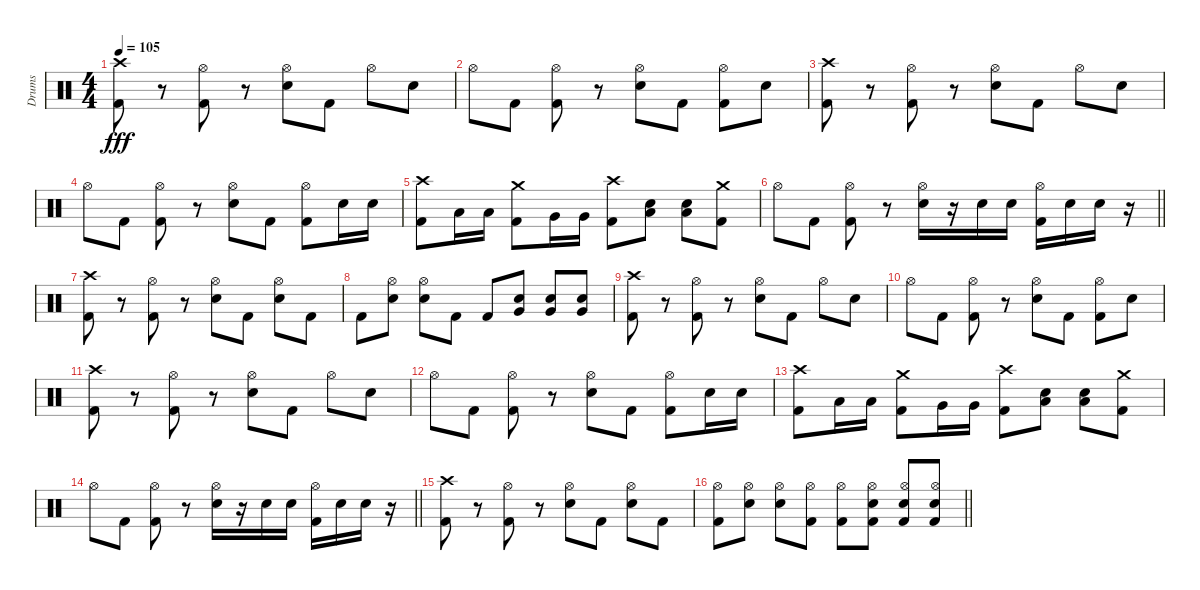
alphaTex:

\track ("Drums" "Drums") {instrument percussion}
\staff {score}
\articulation defaults
\ts (4 4)
\tempo 105
\clef neutral
\ks c
("Crash high (hit)" "Kick (hit) 2").8{dy fff} r.8 ("Hi-Hat (open)" "Kick (hit) 2").8 r.8 ("Hi-Hat (open)" "Electric Snare (hit)").8 "Kick (hit) 2".8 "Hi-Hat (open)".8 "Electric Snare (hit)".8 |
"Hi-Hat (open)".8 "Kick (hit) 2".8 ("Hi-Hat (open)" "Kick (hit) 2").8 r.8 ("Hi-Hat (open)" "Electric Snare (hit)").8 "Kick (hit) 2".8 ("Hi-Hat (open)" "Kick (hit) 2").8 "Electric Snare (hit)".8 |
("Crash high (hit)" "Kick (hit) 2").8 r.8 ("Hi-Hat (open)" "Kick (hit) 2").8 r.8 ("Hi-Hat (open)" "Electric Snare (hit)").8 "Kick (hit) 2".8 "Hi-Hat (open)".8 "Electric Snare (hit)".8 |
"Hi-Hat (open)".8 "Kick (hit) 2".8 ("Hi-Hat (open)" "Kick (hit) 2").8 r.8 ("Hi-Hat (open)" "Electric Snare (hit)").8 "Kick (hit) 2".8 ("Hi-Hat (open)" "Kick (hit) 2").8 "Electric Snare (hit)".16 "Electric Snare (hit)".16 |
("Crash high (hit)" "Kick (hit) 2").8 "Low Tom (hit)".16 "Low Tom (hit)".16 ("Crash medium (hit)" "Kick (hit) 2").8 "Very Low Tom (hit)".16 "Very Low Tom (hit)".16 ("Crash high (hit)" "Kick (hit) 2").8 ("Electric Snare (hit)" "Low Floor Tom (hit)").8 ("Electric Snare (hit)" "Low Floor Tom (hit)").8 ("Crash medium (hit)" "Kick (hit) 2").8 |
\barLineRight lightlight "Hi-Hat (open)".8 "Kick (hit) 2".8
("Hi-Hat (open)" "Kick (hit) 2").8 r.8 ("Hi-Hat (open)" "Electric Snare (hit)").16 r.16 "Electric Snare (hit)".16 "Electric Snare (hit)".16 ("Hi-Hat (open)" "Kick (hit) 2").16 "Electric Snare (hit)".16 "Electric Snare (hit)".16 r.16 |
("Crash high (hit)" "Kick (hit) 2").8 r.8 ("Hi-Hat (open)" "Kick (hit) 2").8 r.8 ("Hi-Hat (open)" "Electric Snare (hit)").8 "Kick (hit) 2".8 ("Hi-Hat (open)" "Electric Snare (hit)").8 "Kick (hit) 2".8 |
"Kick (hit) 2".8 ("Hi-Hat (open)" "Electric Snare (hit)").8 ("Hi-Hat (open)" "Electric Snare (hit)").8 "Kick (hit) 2".8 "Kick (hit) 2".8 ("Very Low Tom (hit)" "Electric Snare (hit)").8 ("Very Low Tom (hit)" "Electric Snare (hit)").8 ("Very Low Tom (hit)" "Electric Snare (hit)").8 |
("Crash high (hit)" "Kick (hit) 2").8 r.8 ("Hi-Hat (open)" "Kick (hit) 2").8 r.8 ("Hi-Hat (open)" "Electric Snare (hit)").8 "Kick (hit) 2".8 "Hi-Hat (open)".8 "Electric Snare (hit)".8 |
"Hi-Hat (open)".8 "Kick (hit) 2".8 ("Hi-Hat (open)" "Kick (hit) 2").8 r.8 ("Hi-Hat (open)" "Electric Snare (hit)").8 "Kick (hit) 2".8 ("Hi-Hat (open)" "Kick (hit) 2").8 "Electric Snare (hit)".8 |
("Crash high (hit)" "Kick (hit) 2").8 r.8 ("Hi-Hat (open)" "Kick (hit) 2").8 r.8 ("Hi-Hat (open)" "Electric Snare (hit)").8 "Kick (hit) 2".8 "Hi-Hat (open)".8 "Electric Snare (hit)".8 |
"Hi-Hat (open)".8 "Kick (hit) 2".8 ("Hi-Hat (open)" "Kick (hit) 2").8 r.8 ("Hi-Hat (open)" "Electric Snare (hit)").8 "Kick (hit) 2".8 ("Hi-Hat (open)" "Kick (hit) 2").8 "Electric Snare (hit)".16 "Electric Snare (hit)".16 |
("Crash high (hit)" "Kick (hit) 2").8 "Low Tom (hit)".16 "Low Tom (hit)".16 ("Crash medium (hit)" "Kick (hit) 2").8 "Very Low Tom (hit)".16 "Very Low Tom (hit)".16 ("Crash high (hit)" "Kick (hit) 2").8 ("Electric Snare (hit)" "Low Floor Tom (hit)").8 ("Electric Snare (hit)" "Low Floor Tom (hit)").8 ("Crash medium (hit)" "Kick (hit) 2").8 |
\barLineRight lightlight "Hi-Hat (open)".8 "Kick (hit) 2".8
("Hi-Hat (open)" "Kick (hit) 2").8 r.8 ("Hi-Hat (open)" "Electric Snare (hit)").16 r.16 "Electric Snare (hit)".16 "Electric Snare (hit)".16 ("Hi-Hat (open)" "Kick (hit) 2").16 "Electric Snare (hit)".16 "Electric Snare (hit)".16 r.16 |
("Crash high (hit)" "Kick (hit) 2").8 r.8 ("Hi-Hat (open)" "Kick (hit) 2").8 r.8 ("Hi-Hat (open)" "Electric Snare (hit)").8 "Kick (hit) 2".8 ("Hi-Hat (open)" "Electric Snare (hit)").8 "Kick (hit) 2".8 |
\barLineRight lightlight
("Hi-Hat (open)" "Kick (hit) 2").8 ("Hi-Hat (open)" "Electric Snare (hit)").8 ("Hi-Hat (open)" "Electric Snare (hit)").8 ("Hi-Hat (open)" "Kick (hit) 2").8 ("Hi-Hat (open)" "Kick (hit) 2").8 ("Hi-Hat (open)" "Electric Snare (hit)" "Kick (hit) 2").8 ("Hi-Hat (open)" "Electric Snare (hit)" "Kick (hit) 2").8 ("Hi-Hat (open)" "Electric Snare (hit)" "Kick (hit) 2").8
